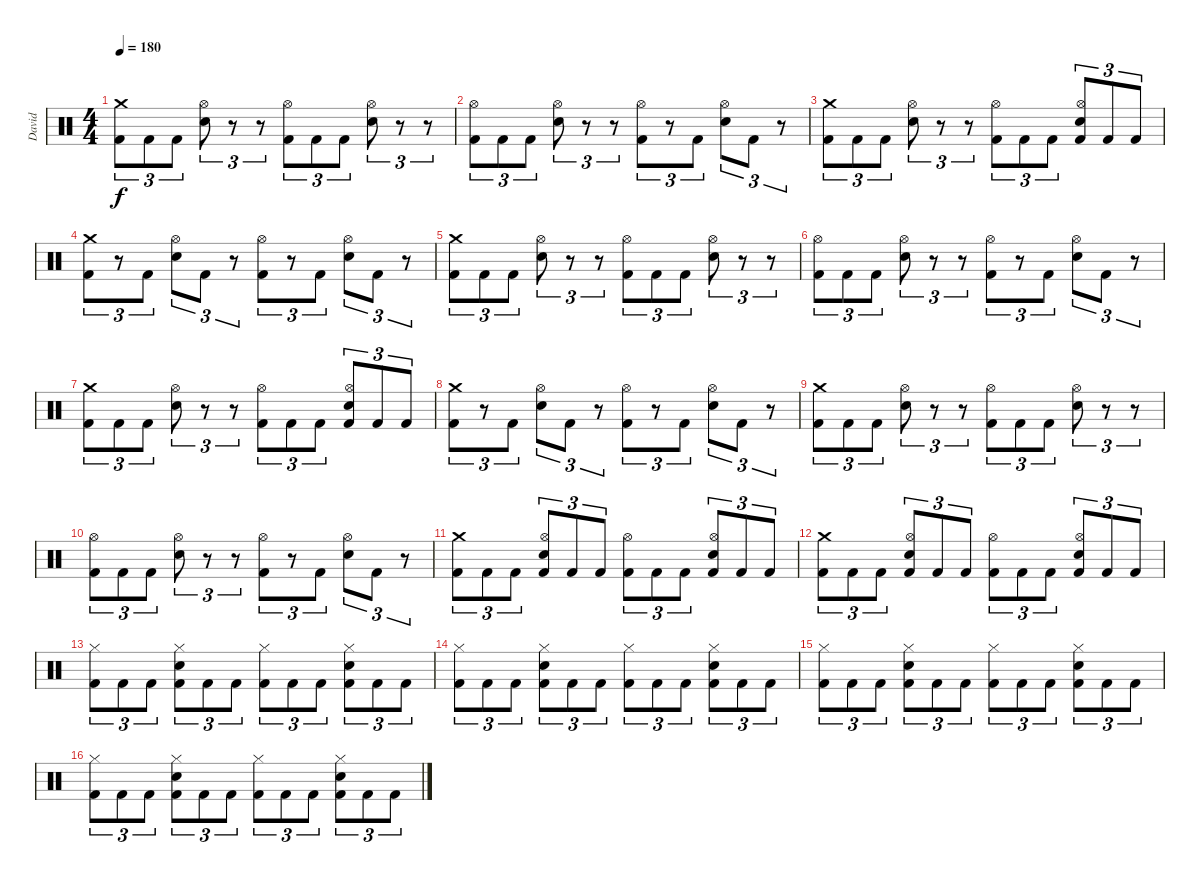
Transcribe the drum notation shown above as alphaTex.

\track ("David" "David") {instrument percussion}
\staff {score}
\articulation defaults
\ts (4 4)
\tempo 180
\clef neutral
\ks c
("Crash medium (hit)" "Kick (hit) 2").8{tu (3 2) dy f} "Kick (hit) 2".8{tu (3 2)} "Kick (hit) 2".8{tu (3 2)} ("Hi-Hat (open)" "Electric Snare (hit)").8{tu (3 2)} r.8{tu (3 2)} r.8{tu (3 2)} ("Hi-Hat (open)" "Kick (hit) 2").8{tu (3 2)} "Kick (hit) 2".8{tu (3 2)} "Kick (hit) 2".8{tu (3 2)} ("Hi-Hat (open)" "Electric Snare (hit)").8{tu (3 2)} r.8{tu (3 2)} r.8{tu (3 2)} |
("Hi-Hat (open)" "Kick (hit) 2").8{tu (3 2)} "Kick (hit) 2".8{tu (3 2)} "Kick (hit) 2".8{tu (3 2)} ("Hi-Hat (open)" "Electric Snare (hit)").8{tu (3 2)} r.8{tu (3 2)} r.8{tu (3 2)} ("Hi-Hat (open)" "Kick (hit) 2").8{tu (3 2)} r.8{tu (3 2)} "Kick (hit) 2".8{tu (3 2)} ("Hi-Hat (open)" "Electric Snare (hit)").8{tu (3 2)} "Kick (hit) 2".8{tu (3 2)} r.8{tu (3 2)} |
("Crash medium (hit)" "Kick (hit) 2").8{tu (3 2)} "Kick (hit) 2".8{tu (3 2)} "Kick (hit) 2".8{tu (3 2)} ("Hi-Hat (open)" "Electric Snare (hit)").8{tu (3 2)} r.8{tu (3 2)} r.8{tu (3 2)} ("Hi-Hat (open)" "Kick (hit) 2").8{tu (3 2)} "Kick (hit) 2".8{tu (3 2)} "Kick (hit) 2".8{tu (3 2)} ("Hi-Hat (open)" "Electric Snare (hit)" "Kick (hit) 2").8{tu (3 2)} "Kick (hit) 2".8{tu (3 2)} "Kick (hit) 2".8{tu (3 2)} |
("Crash medium (hit)" "Kick (hit) 2").8{tu (3 2)} r.8{tu (3 2)} "Kick (hit) 2".8{tu (3 2)} ("Hi-Hat (open)" "Electric Snare (hit)").8{tu (3 2)} "Kick (hit) 2".8{tu (3 2)} r.8{tu (3 2)} ("Hi-Hat (open)" "Kick (hit) 2").8{tu (3 2)} r.8{tu (3 2)} "Kick (hit) 2".8{tu (3 2)} ("Hi-Hat (open)" "Electric Snare (hit)").8{tu (3 2)} "Kick (hit) 2".8{tu (3 2)} r.8{tu (3 2)} |
("Crash medium (hit)" "Kick (hit) 2").8{tu (3 2)} "Kick (hit) 2".8{tu (3 2)} "Kick (hit) 2".8{tu (3 2)} ("Hi-Hat (open)" "Electric Snare (hit)").8{tu (3 2)} r.8{tu (3 2)} r.8{tu (3 2)} ("Hi-Hat (open)" "Kick (hit) 2").8{tu (3 2)} "Kick (hit) 2".8{tu (3 2)} "Kick (hit) 2".8{tu (3 2)} ("Hi-Hat (open)" "Electric Snare (hit)").8{tu (3 2)} r.8{tu (3 2)} r.8{tu (3 2)} |
("Hi-Hat (open)" "Kick (hit) 2").8{tu (3 2)} "Kick (hit) 2".8{tu (3 2)} "Kick (hit) 2".8{tu (3 2)} ("Hi-Hat (open)" "Electric Snare (hit)").8{tu (3 2)} r.8{tu (3 2)} r.8{tu (3 2)} ("Hi-Hat (open)" "Kick (hit) 2").8{tu (3 2)} r.8{tu (3 2)} "Kick (hit) 2".8{tu (3 2)} ("Hi-Hat (open)" "Electric Snare (hit)").8{tu (3 2)} "Kick (hit) 2".8{tu (3 2)} r.8{tu (3 2)} |
("Crash medium (hit)" "Kick (hit) 2").8{tu (3 2)} "Kick (hit) 2".8{tu (3 2)} "Kick (hit) 2".8{tu (3 2)} ("Hi-Hat (open)" "Electric Snare (hit)").8{tu (3 2)} r.8{tu (3 2)} r.8{tu (3 2)} ("Hi-Hat (open)" "Kick (hit) 2").8{tu (3 2)} "Kick (hit) 2".8{tu (3 2)} "Kick (hit) 2".8{tu (3 2)} ("Hi-Hat (open)" "Electric Snare (hit)" "Kick (hit) 2").8{tu (3 2)} "Kick (hit) 2".8{tu (3 2)} "Kick (hit) 2".8{tu (3 2)} |
("Crash medium (hit)" "Kick (hit) 2").8{tu (3 2)} r.8{tu (3 2)} "Kick (hit) 2".8{tu (3 2)} ("Hi-Hat (open)" "Electric Snare (hit)").8{tu (3 2)} "Kick (hit) 2".8{tu (3 2)} r.8{tu (3 2)} ("Hi-Hat (open)" "Kick (hit) 2").8{tu (3 2)} r.8{tu (3 2)} "Kick (hit) 2".8{tu (3 2)} ("Hi-Hat (open)" "Electric Snare (hit)").8{tu (3 2)} "Kick (hit) 2".8{tu (3 2)} r.8{tu (3 2)} |
("Crash medium (hit)" "Kick (hit) 2").8{tu (3 2)} "Kick (hit) 2".8{tu (3 2)} "Kick (hit) 2".8{tu (3 2)} ("Hi-Hat (open)" "Electric Snare (hit)").8{tu (3 2)} r.8{tu (3 2)} r.8{tu (3 2)} ("Hi-Hat (open)" "Kick (hit) 2").8{tu (3 2)} "Kick (hit) 2".8{tu (3 2)} "Kick (hit) 2".8{tu (3 2)} ("Hi-Hat (open)" "Electric Snare (hit)").8{tu (3 2)} r.8{tu (3 2)} r.8{tu (3 2)} |
("Hi-Hat (open)" "Kick (hit) 2").8{tu (3 2)} "Kick (hit) 2".8{tu (3 2)} "Kick (hit) 2".8{tu (3 2)} ("Hi-Hat (open)" "Electric Snare (hit)").8{tu (3 2)} r.8{tu (3 2)} r.8{tu (3 2)} ("Hi-Hat (open)" "Kick (hit) 2").8{tu (3 2)} r.8{tu (3 2)} "Kick (hit) 2".8{tu (3 2)} ("Hi-Hat (open)" "Electric Snare (hit)").8{tu (3 2)} "Kick (hit) 2".8{tu (3 2)} r.8{tu (3 2)} |
("Crash medium (hit)" "Kick (hit) 2").8{tu (3 2)} "Kick (hit) 2".8{tu (3 2)} "Kick (hit) 2".8{tu (3 2)} ("Hi-Hat (open)" "Electric Snare (hit)" "Kick (hit) 2").8{tu (3 2)} "Kick (hit) 2".8{tu (3 2)} "Kick (hit) 2".8{tu (3 2)} ("Hi-Hat (open)" "Kick (hit) 2").8{tu (3 2)} "Kick (hit) 2".8{tu (3 2)} "Kick (hit) 2".8{tu (3 2)} ("Hi-Hat (open)" "Electric Snare (hit)" "Kick (hit) 2").8{tu (3 2)} "Kick (hit) 2".8{tu (3 2)} "Kick (hit) 2".8{tu (3 2)} |
("Crash medium (hit)" "Kick (hit) 2").8{tu (3 2)} "Kick (hit) 2".8{tu (3 2)} "Kick (hit) 2".8{tu (3 2)} ("Hi-Hat (open)" "Electric Snare (hit)" "Kick (hit) 2").8{tu (3 2)} "Kick (hit) 2".8{tu (3 2)} "Kick (hit) 2".8{tu (3 2)} ("Hi-Hat (open)" "Kick (hit) 2").8{tu (3 2)} "Kick (hit) 2".8{tu (3 2)} "Kick (hit) 2".8{tu (3 2)} ("Hi-Hat (open)" "Electric Snare (hit)" "Kick (hit) 2").8{tu (3 2)} "Kick (hit) 2".8{tu (3 2)} "Kick (hit) 2".8{tu (3 2)} |
("Hi-Hat (closed)" "Kick (hit) 2").8{tu (3 2)} "Kick (hit) 2".8{tu (3 2)} "Kick (hit) 2".8{tu (3 2)} ("Hi-Hat (closed)" "Electric Snare (hit)" "Kick (hit) 2").8{tu (3 2)} "Kick (hit) 2".8{tu (3 2)} "Kick (hit) 2".8{tu (3 2)} ("Hi-Hat (closed)" "Kick (hit) 2").8{tu (3 2)} "Kick (hit) 2".8{tu (3 2)} "Kick (hit) 2".8{tu (3 2)} ("Hi-Hat (closed)" "Electric Snare (hit)" "Kick (hit) 2").8{tu (3 2)} "Kick (hit) 2".8{tu (3 2)} "Kick (hit) 2".8{tu (3 2)} |
("Hi-Hat (closed)" "Kick (hit) 2").8{tu (3 2)} "Kick (hit) 2".8{tu (3 2)} "Kick (hit) 2".8{tu (3 2)} ("Hi-Hat (closed)" "Electric Snare (hit)" "Kick (hit) 2").8{tu (3 2)} "Kick (hit) 2".8{tu (3 2)} "Kick (hit) 2".8{tu (3 2)} ("Hi-Hat (closed)" "Kick (hit) 2").8{tu (3 2)} "Kick (hit) 2".8{tu (3 2)} "Kick (hit) 2".8{tu (3 2)} ("Hi-Hat (closed)" "Electric Snare (hit)" "Kick (hit) 2").8{tu (3 2)} "Kick (hit) 2".8{tu (3 2)} "Kick (hit) 2".8{tu (3 2)} |
("Hi-Hat (closed)" "Kick (hit) 2").8{tu (3 2)} "Kick (hit) 2".8{tu (3 2)} "Kick (hit) 2".8{tu (3 2)} ("Hi-Hat (closed)" "Electric Snare (hit)" "Kick (hit) 2").8{tu (3 2)} "Kick (hit) 2".8{tu (3 2)} "Kick (hit) 2".8{tu (3 2)} ("Hi-Hat (closed)" "Kick (hit) 2").8{tu (3 2)} "Kick (hit) 2".8{tu (3 2)} "Kick (hit) 2".8{tu (3 2)} ("Hi-Hat (closed)" "Electric Snare (hit)" "Kick (hit) 2").8{tu (3 2)} "Kick (hit) 2".8{tu (3 2)} "Kick (hit) 2".8{tu (3 2)} |
("Hi-Hat (closed)" "Kick (hit) 2").8{tu (3 2)} "Kick (hit) 2".8{tu (3 2)} "Kick (hit) 2".8{tu (3 2)} ("Hi-Hat (closed)" "Electric Snare (hit)" "Kick (hit) 2").8{tu (3 2)} "Kick (hit) 2".8{tu (3 2)} "Kick (hit) 2".8{tu (3 2)} ("Hi-Hat (closed)" "Kick (hit) 2").8{tu (3 2)} "Kick (hit) 2".8{tu (3 2)} "Kick (hit) 2".8{tu (3 2)} ("Hi-Hat (closed)" "Electric Snare (hit)" "Kick (hit) 2").8{tu (3 2)} "Kick (hit) 2".8{tu (3 2)} "Kick (hit) 2".8{tu (3 2)}
